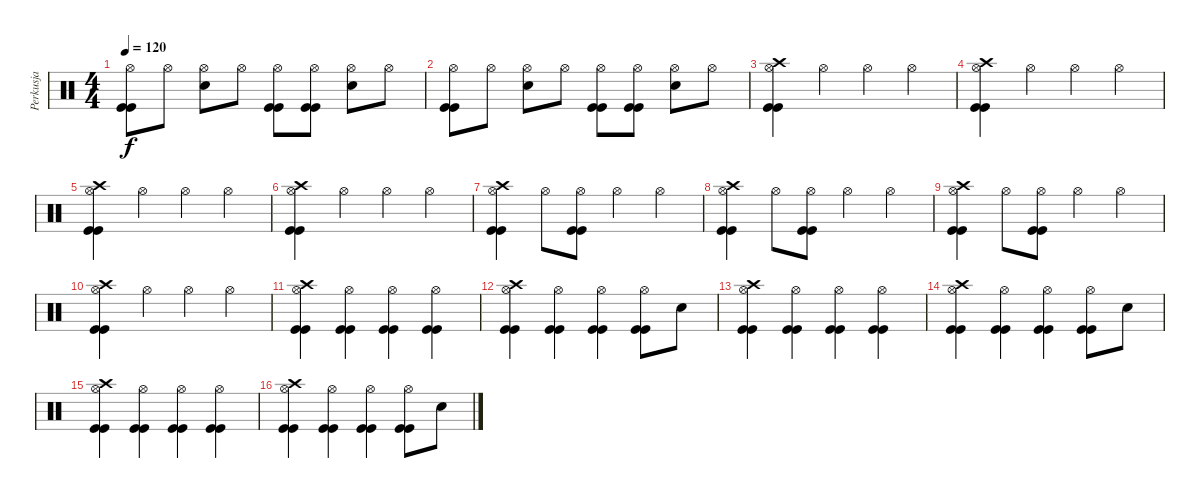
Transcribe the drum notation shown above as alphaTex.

\track ("Perkusja" "Perkusja") {instrument percussion}
\staff
\articulation defaults
\ts (4 4)
\tempo 120
\clef neutral
\ks c
("Hi-Hat (open)" "Kick (hit)" "Kick (hit)").8{dy f} "Hi-Hat (open)".8 ("Hi-Hat (open)" "Snare (hit) 2").8 "Hi-Hat (open)".8 ("Hi-Hat (open)" "Kick (hit)" "Kick (hit)").8 ("Hi-Hat (open)" "Kick (hit)" "Kick (hit)").8 ("Hi-Hat (open)" "Snare (hit) 2").8 "Hi-Hat (open)".8 |
("Hi-Hat (open)" "Kick (hit)" "Kick (hit)").8 "Hi-Hat (open)".8 ("Hi-Hat (open)" "Snare (hit) 2").8 "Hi-Hat (open)".8 ("Hi-Hat (open)" "Kick (hit)" "Kick (hit)").8 ("Hi-Hat (open)" "Kick (hit)" "Kick (hit)").8 ("Hi-Hat (open)" "Snare (hit) 2").8 "Hi-Hat (open)".8 |
("Crash high (hit)" "Hi-Hat (open)" "Kick (hit)" "Kick (hit)").4 "Hi-Hat (open)".4 "Hi-Hat (open)".4 "Hi-Hat (open)".4 |
("Crash high (hit)" "Hi-Hat (open)" "Kick (hit)" "Kick (hit)").4 "Hi-Hat (open)".4 "Hi-Hat (open)".4 "Hi-Hat (open)".4 |
("Crash high (hit)" "Hi-Hat (open)" "Kick (hit)" "Kick (hit)").4 "Hi-Hat (open)".4 "Hi-Hat (open)".4 "Hi-Hat (open)".4 |
("Crash high (hit)" "Hi-Hat (open)" "Kick (hit)" "Kick (hit)").4 "Hi-Hat (open)".4 "Hi-Hat (open)".4 "Hi-Hat (open)".4 |
("Crash high (hit)" "Hi-Hat (open)" "Kick (hit)" "Kick (hit)").4 "Hi-Hat (open)".8 ("Hi-Hat (open)" "Kick (hit)" "Kick (hit)").8 "Hi-Hat (open)".4 "Hi-Hat (open)".4 |
("Crash high (hit)" "Hi-Hat (open)" "Kick (hit)" "Kick (hit)").4 "Hi-Hat (open)".8 ("Hi-Hat (open)" "Kick (hit)" "Kick (hit)").8 "Hi-Hat (open)".4 "Hi-Hat (open)".4 |
("Crash high (hit)" "Hi-Hat (open)" "Kick (hit)" "Kick (hit)").4 "Hi-Hat (open)".8 ("Hi-Hat (open)" "Kick (hit)" "Kick (hit)").8 "Hi-Hat (open)".4 "Hi-Hat (open)".4 |
("Crash high (hit)" "Hi-Hat (open)" "Kick (hit)" "Kick (hit)").4 "Hi-Hat (open)".4 "Hi-Hat (open)".4 "Hi-Hat (open)".4 |
("Crash high (hit)" "Hi-Hat (open)" "Kick (hit)" "Kick (hit)").4 ("Hi-Hat (open)" "Kick (hit)" "Kick (hit)").4 ("Hi-Hat (open)" "Kick (hit)" "Kick (hit)").4 ("Hi-Hat (open)" "Kick (hit)" "Kick (hit)").4 |
("Crash high (hit)" "Hi-Hat (open)" "Kick (hit)" "Kick (hit)").4 ("Hi-Hat (open)" "Kick (hit)" "Kick (hit)").4 ("Hi-Hat (open)" "Kick (hit)" "Kick (hit)").4 ("Hi-Hat (open)" "Kick (hit)" "Kick (hit)").8 "Snare (hit) 2".8 |
("Crash high (hit)" "Hi-Hat (open)" "Kick (hit)" "Kick (hit)").4 ("Hi-Hat (open)" "Kick (hit)" "Kick (hit)").4 ("Hi-Hat (open)" "Kick (hit)" "Kick (hit)").4 ("Hi-Hat (open)" "Kick (hit)" "Kick (hit)").4 |
("Crash high (hit)" "Hi-Hat (open)" "Kick (hit)" "Kick (hit)").4 ("Hi-Hat (open)" "Kick (hit)" "Kick (hit)").4 ("Hi-Hat (open)" "Kick (hit)" "Kick (hit)").4 ("Hi-Hat (open)" "Kick (hit)" "Kick (hit)").8 "Snare (hit) 2".8 |
("Crash high (hit)" "Hi-Hat (open)" "Kick (hit)" "Kick (hit)").4 ("Hi-Hat (open)" "Kick (hit)" "Kick (hit)").4 ("Hi-Hat (open)" "Kick (hit)" "Kick (hit)").4 ("Hi-Hat (open)" "Kick (hit)" "Kick (hit)").4 |
("Crash high (hit)" "Hi-Hat (open)" "Kick (hit)" "Kick (hit)").4 ("Hi-Hat (open)" "Kick (hit)" "Kick (hit)").4 ("Hi-Hat (open)" "Kick (hit)" "Kick (hit)").4 ("Hi-Hat (open)" "Kick (hit)" "Kick (hit)").8 "Snare (hit) 2".8
